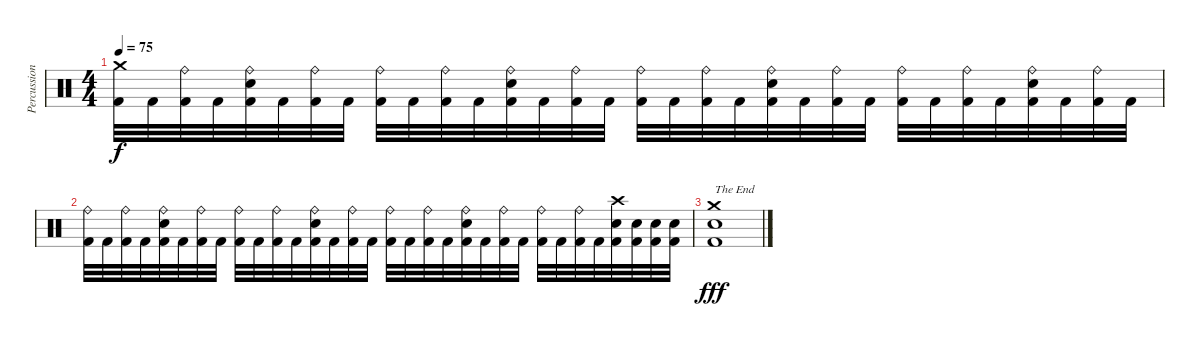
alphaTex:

\track ("Percussion" "Percussion") {instrument percussion}
\staff {score}
\articulation defaults
\ts (4 4)
\tempo 75
\clef neutral
\ks c
("Crash medium (hit)" "Kick (hit) 2").32{dy f} "Kick (hit) 2".32 ("Ride (bell)" "Kick (hit) 2").32 "Kick (hit) 2".32 ("Ride (bell)" "Electric Snare (hit)" "Kick (hit) 2").32 "Kick (hit) 2".32 ("Ride (bell)" "Kick (hit) 2").32 "Kick (hit) 2".32 ("Ride (bell)" "Kick (hit) 2").32 "Kick (hit) 2".32 ("Ride (bell)" "Kick (hit) 2").32 "Kick (hit) 2".32 ("Ride (bell)" "Electric Snare (hit)" "Kick (hit) 2").32 "Kick (hit) 2".32 ("Ride (bell)" "Kick (hit) 2").32 "Kick (hit) 2".32 ("Ride (bell)" "Kick (hit) 2").32 "Kick (hit) 2".32 ("Ride (bell)" "Kick (hit) 2").32 "Kick (hit) 2".32 ("Ride (bell)" "Electric Snare (hit)" "Kick (hit) 2").32 "Kick (hit) 2".32 ("Ride (bell)" "Kick (hit) 2").32 "Kick (hit) 2".32 ("Ride (bell)" "Kick (hit) 2").32 "Kick (hit) 2".32 ("Ride (bell)" "Kick (hit) 2").32 "Kick (hit) 2".32 ("Ride (bell)" "Electric Snare (hit)" "Kick (hit) 2").32 "Kick (hit) 2".32 ("Ride (bell)" "Kick (hit) 2").32 "Kick (hit) 2".32 |
("Ride (bell)" "Kick (hit) 2").32 "Kick (hit) 2".32 ("Ride (bell)" "Kick (hit) 2").32 "Kick (hit) 2".32 ("Ride (bell)" "Electric Snare (hit)" "Kick (hit) 2").32 "Kick (hit) 2".32 ("Ride (bell)" "Kick (hit) 2").32 "Kick (hit) 2".32 ("Ride (bell)" "Kick (hit) 2").32 "Kick (hit) 2".32 ("Ride (bell)" "Kick (hit) 2").32 "Kick (hit) 2".32 ("Ride (bell)" "Electric Snare (hit)" "Kick (hit) 2").32 "Kick (hit) 2".32 ("Ride (bell)" "Kick (hit) 2").32 "Kick (hit) 2".32 ("Ride (bell)" "Kick (hit) 2").32 "Kick (hit) 2".32 ("Ride (bell)" "Kick (hit) 2").32 "Kick (hit) 2".32 ("Ride (bell)" "Electric Snare (hit)" "Kick (hit) 2").32 "Kick (hit) 2".32 ("Ride (bell)" "Kick (hit) 2").32 "Kick (hit) 2".32 ("Ride (bell)" "Kick (hit) 2").32 "Kick (hit) 2".32 ("Ride (bell)" "Kick (hit) 2").32 "Kick (hit) 2".32 ("Crash high (hit)" "Electric Snare (hit)" "Kick (hit) 2").32 ("Electric Snare (hit)" "Kick (hit) 2").32 ("Electric Snare (hit)" "Kick (hit) 2").32 ("Electric Snare (hit)" "Kick (hit) 2").32 |
("Crash medium (hit)" "Electric Snare (hit)" "Kick (hit) 2").1{txt "The End" dy fff}
